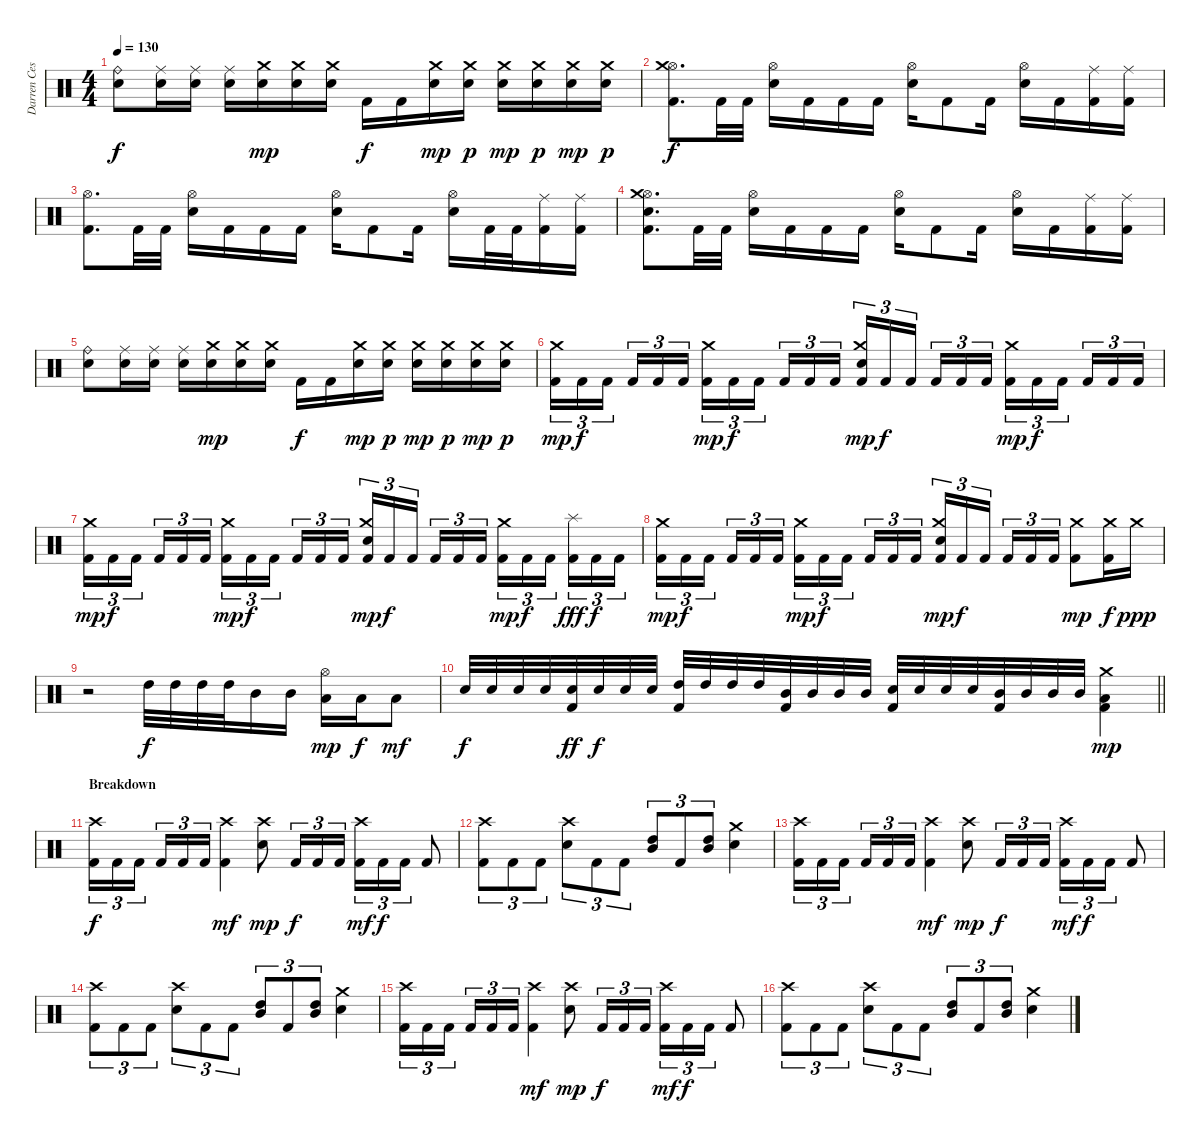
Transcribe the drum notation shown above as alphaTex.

\track ("Darren Cesca" "Darren Ces") {instrument percussion}
\staff {score}
\articulation defaults
\ts (4 4)
\tempo 130
\clef neutral
\ks c
("Ride (bell)" "Electric Snare (hit)").8{dy f} ("Ride (middle)" "Electric Snare (hit)").16 ("Ride (middle)" "Electric Snare (hit)").16 ("Ride (middle)" "Electric Snare (hit)").16 ("Crash medium (hit)" "Electric Snare (hit)").16{dy mp} ("Crash medium (hit)" "Electric Snare (hit)").16 ("Crash medium (hit)" "Electric Snare (hit)").16 "Kick (hit) 2".16{dy f} "Kick (hit) 2".16 ("Crash medium (hit)" "Electric Snare (hit)").16{dy mp} ("Crash medium (hit)" "Electric Snare (hit)").16{dy p} ("Crash medium (hit)" "Electric Snare (hit)").16{dy mp} ("Crash medium (hit)" "Electric Snare (hit)").16{dy p} ("Crash medium (hit)" "Electric Snare (hit)").16{dy mp} ("Crash medium (hit)" "Electric Snare (hit)").16{dy p} |
("Hi-Hat (open)" "Crash medium (hit)" "Kick (hit) 2").8{d dy f} "Kick (hit) 2".32 "Kick (hit) 2".32 ("Hi-Hat (open)" "Electric Snare (hit)").16 "Kick (hit) 2".16 "Kick (hit) 2".16 "Kick (hit) 2".16 ("Hi-Hat (open)" "Electric Snare (hit)").16 "Kick (hit) 2".8 "Kick (hit) 2".16 ("Hi-Hat (open)" "Electric Snare (hit)").16 "Kick (hit) 2".16 ("Ride (middle)" "Kick (hit) 2").16 ("Ride (middle)" "Kick (hit) 2").16 |
("Hi-Hat (open)" "Kick (hit) 2").8{d} "Kick (hit) 2".32 "Kick (hit) 2".32 ("Hi-Hat (open)" "Electric Snare (hit)").16 "Kick (hit) 2".16 "Kick (hit) 2".16 "Kick (hit) 2".16 ("Hi-Hat (open)" "Electric Snare (hit)").16 "Kick (hit) 2".8 "Kick (hit) 2".16 ("Hi-Hat (open)" "Electric Snare (hit)").16 "Kick (hit) 2".32 "Kick (hit) 2".32 ("Ride (middle)" "Kick (hit) 2").16 ("Ride (middle)" "Kick (hit) 2").16 |
("Hi-Hat (open)" "Crash medium (hit)" "Electric Snare (hit)" "Kick (hit) 2").8{d} "Kick (hit) 2".32 "Kick (hit) 2".32 ("Hi-Hat (open)" "Electric Snare (hit)").16 "Kick (hit) 2".16 "Kick (hit) 2".16 "Kick (hit) 2".16 ("Hi-Hat (open)" "Electric Snare (hit)").16 "Kick (hit) 2".8 "Kick (hit) 2".16 ("Hi-Hat (open)" "Electric Snare (hit)").16 "Kick (hit) 2".16 ("Ride (middle)" "Kick (hit) 2").16 ("Ride (middle)" "Kick (hit) 2").16 |
("Ride (bell)" "Electric Snare (hit)").8 ("Ride (middle)" "Electric Snare (hit)").16 ("Ride (middle)" "Electric Snare (hit)").16 ("Ride (middle)" "Electric Snare (hit)").16 ("Crash medium (hit)" "Electric Snare (hit)").16{dy mp} ("Crash medium (hit)" "Electric Snare (hit)").16 ("Crash medium (hit)" "Electric Snare (hit)").16 "Kick (hit) 2".16{dy f} "Kick (hit) 2".16 ("Crash medium (hit)" "Electric Snare (hit)").16{dy mp} ("Crash medium (hit)" "Electric Snare (hit)").16{dy p} ("Crash medium (hit)" "Electric Snare (hit)").16{dy mp} ("Crash medium (hit)" "Electric Snare (hit)").16{dy p} ("Crash medium (hit)" "Electric Snare (hit)").16{dy mp} ("Crash medium (hit)" "Electric Snare (hit)").16{dy p} |
("Crash medium (hit)" "Kick (hit) 2").16{tu (3 2) dy mp} "Kick (hit) 2".16{tu (3 2) dy f} "Kick (hit) 2".16{tu (3 2) beam splitsecondary} "Kick (hit) 2".16{tu (3 2)} "Kick (hit) 2".16{tu (3 2)} "Kick (hit) 2".16{tu (3 2)} ("Crash medium (hit)" "Kick (hit) 2").16{tu (3 2) dy mp} "Kick (hit) 2".16{tu (3 2) dy f} "Kick (hit) 2".16{tu (3 2) beam splitsecondary} "Kick (hit) 2".16{tu (3 2)} "Kick (hit) 2".16{tu (3 2)} "Kick (hit) 2".16{tu (3 2)} ("Crash medium (hit)" "Electric Snare (hit)" "Kick (hit) 2").16{tu (3 2) dy mp} "Kick (hit) 2".16{tu (3 2) dy f} "Kick (hit) 2".16{tu (3 2) beam splitsecondary} "Kick (hit) 2".16{tu (3 2)} "Kick (hit) 2".16{tu (3 2)} "Kick (hit) 2".16{tu (3 2)} ("Crash medium (hit)" "Kick (hit) 2").16{tu (3 2) dy mp} "Kick (hit) 2".16{tu (3 2) dy f} "Kick (hit) 2".16{tu (3 2) beam splitsecondary} "Kick (hit) 2".16{tu (3 2)} "Kick (hit) 2".16{tu (3 2)} "Kick (hit) 2".16{tu (3 2)} |
("Crash medium (hit)" "Kick (hit) 2").16{tu (3 2) dy mp} "Kick (hit) 2".16{tu (3 2) dy f} "Kick (hit) 2".16{tu (3 2) beam splitsecondary} "Kick (hit) 2".16{tu (3 2)} "Kick (hit) 2".16{tu (3 2)} "Kick (hit) 2".16{tu (3 2)} ("Crash medium (hit)" "Kick (hit) 2").16{tu (3 2) dy mp} "Kick (hit) 2".16{tu (3 2) dy f} "Kick (hit) 2".16{tu (3 2) beam splitsecondary} "Kick (hit) 2".16{tu (3 2)} "Kick (hit) 2".16{tu (3 2)} "Kick (hit) 2".16{tu (3 2)} ("Crash medium (hit)" "Electric Snare (hit)" "Kick (hit) 2").16{tu (3 2) dy mp} "Kick (hit) 2".16{tu (3 2) dy f} "Kick (hit) 2".16{tu (3 2) beam splitsecondary} "Kick (hit) 2".16{tu (3 2)} "Kick (hit) 2".16{tu (3 2)} "Kick (hit) 2".16{tu (3 2)} ("Crash medium (hit)" "Kick (hit) 2").16{tu (3 2) dy mp} "Kick (hit) 2".16{tu (3 2) dy f} "Kick (hit) 2".16{tu (3 2) beam splitsecondary} ("Splash (hit)" "Kick (hit) 2").16{tu (3 2) dy fff} "Kick (hit) 2".16{tu (3 2) dy f} "Kick (hit) 2".16{tu (3 2)} |
("Crash medium (hit)" "Kick (hit) 2").16{tu (3 2) dy mp} "Kick (hit) 2".16{tu (3 2) dy f} "Kick (hit) 2".16{tu (3 2) beam splitsecondary} "Kick (hit) 2".16{tu (3 2)} "Kick (hit) 2".16{tu (3 2)} "Kick (hit) 2".16{tu (3 2)} ("Crash medium (hit)" "Kick (hit) 2").16{tu (3 2) dy mp} "Kick (hit) 2".16{tu (3 2) dy f} "Kick (hit) 2".16{tu (3 2) beam splitsecondary} "Kick (hit) 2".16{tu (3 2)} "Kick (hit) 2".16{tu (3 2)} "Kick (hit) 2".16{tu (3 2)} ("Crash medium (hit)" "Electric Snare (hit)" "Kick (hit) 2").16{tu (3 2) dy mp} "Kick (hit) 2".16{tu (3 2) dy f} "Kick (hit) 2".16{tu (3 2) beam splitsecondary} "Kick (hit) 2".16{tu (3 2)} "Kick (hit) 2".16{tu (3 2)} "Kick (hit) 2".16{tu (3 2)} ("Crash medium (hit)" "Kick (hit) 2").8{dy mp} ("Crash medium (hit)" "Kick (hit) 2").16{dy f} "Crash medium (hit)".16{dy ppp} |
r.2 "High Tom (hit)".32{dy f} "High Tom (hit)".32 "High Tom (hit)".32 "High Tom (hit)".32 "Mid Tom (hit)".16 "Mid Tom (hit)".16 ("Hi-Hat (open)" "Low Tom (hit)").16{dy mp} "Low Tom (hit)".16{dy f} "Low Tom (hit)".8{dy mf} |
\barLineRight lightlight "Electric Snare (hit)".32{dy f} "Electric Snare (hit)".32 "Electric Snare (hit)".32 "Electric Snare (hit)".32
("Electric Snare (hit)" "Kick (hit) 2").32{dy ff} "Electric Snare (hit)".32{dy f} "Electric Snare (hit)".32 "Electric Snare (hit)".32 ("High Tom (hit)" "Kick (hit) 2").32 "High Tom (hit)".32 "High Tom (hit)".32 "High Tom (hit)".32 ("Mid Tom (hit)" "Kick (hit) 2").32 "Mid Tom (hit)".32 "Mid Tom (hit)".32 "Mid Tom (hit)".32 ("Electric Snare (hit)" "Kick (hit) 2").32 "Electric Snare (hit)".32 "Electric Snare (hit)".32 "Electric Snare (hit)".32 ("Mid Tom (hit)" "Kick (hit) 2").32 "Mid Tom (hit)".32 "Mid Tom (hit)".32 "Mid Tom (hit)".32 ("Crash medium (hit)" "Low Tom (hit)" "Kick (hit) 2").4{dy mp} |
\section ("" "Breakdown")
("Crash high (hit)" "Kick (hit) 2").16{tu (3 2) dy f} "Kick (hit) 2".16{tu (3 2)} "Kick (hit) 2".16{tu (3 2) beam splitsecondary} "Kick (hit) 2".16{tu (3 2)} "Kick (hit) 2".16{tu (3 2)} "Kick (hit) 2".16{tu (3 2)} ("Crash high (hit)" "Kick (hit) 2").4{dy mf} ("Crash high (hit)" "Electric Snare (hit)").8{dy mp} "Kick (hit) 2".16{tu (3 2) dy f} "Kick (hit) 2".16{tu (3 2)} "Kick (hit) 2".16{tu (3 2)} ("Crash high (hit)" "Kick (hit) 2").16{tu (3 2) dy mf} "Kick (hit) 2".16{tu (3 2) dy f} "Kick (hit) 2".16{tu (3 2)} "Kick (hit) 2".8 |
("Crash high (hit)" "Kick (hit) 2").8{tu (3 2)} "Kick (hit) 2".8{tu (3 2)} "Kick (hit) 2".8{tu (3 2)} ("Crash high (hit)" "Electric Snare (hit)").8{tu (3 2)} "Kick (hit) 2".8{tu (3 2)} "Kick (hit) 2".8{tu (3 2)} ("High Tom (hit)" "Mid Tom (hit)").8{tu (3 2)} "Kick (hit) 2".8{tu (3 2)} ("High Tom (hit)" "Mid Tom (hit)").8{tu (3 2)} ("Crash medium (hit)" "Electric Snare (hit)").4 |
("Crash high (hit)" "Kick (hit) 2").16{tu (3 2)} "Kick (hit) 2".16{tu (3 2)} "Kick (hit) 2".16{tu (3 2) beam splitsecondary} "Kick (hit) 2".16{tu (3 2)} "Kick (hit) 2".16{tu (3 2)} "Kick (hit) 2".16{tu (3 2)} ("Crash high (hit)" "Kick (hit) 2").4{dy mf} ("Crash high (hit)" "Electric Snare (hit)").8{dy mp} "Kick (hit) 2".16{tu (3 2) dy f} "Kick (hit) 2".16{tu (3 2)} "Kick (hit) 2".16{tu (3 2)} ("Crash high (hit)" "Kick (hit) 2").16{tu (3 2) dy mf} "Kick (hit) 2".16{tu (3 2) dy f} "Kick (hit) 2".16{tu (3 2)} "Kick (hit) 2".8 |
("Crash high (hit)" "Kick (hit) 2").8{tu (3 2)} "Kick (hit) 2".8{tu (3 2)} "Kick (hit) 2".8{tu (3 2)} ("Crash high (hit)" "Electric Snare (hit)").8{tu (3 2)} "Kick (hit) 2".8{tu (3 2)} "Kick (hit) 2".8{tu (3 2)} ("High Tom (hit)" "Mid Tom (hit)").8{tu (3 2)} "Kick (hit) 2".8{tu (3 2)} ("High Tom (hit)" "Mid Tom (hit)").8{tu (3 2)} ("Crash medium (hit)" "Electric Snare (hit)").4 |
("Crash high (hit)" "Kick (hit) 2").16{tu (3 2)} "Kick (hit) 2".16{tu (3 2)} "Kick (hit) 2".16{tu (3 2) beam splitsecondary} "Kick (hit) 2".16{tu (3 2)} "Kick (hit) 2".16{tu (3 2)} "Kick (hit) 2".16{tu (3 2)} ("Crash high (hit)" "Kick (hit) 2").4{dy mf} ("Crash high (hit)" "Electric Snare (hit)").8{dy mp} "Kick (hit) 2".16{tu (3 2) dy f} "Kick (hit) 2".16{tu (3 2)} "Kick (hit) 2".16{tu (3 2)} ("Crash high (hit)" "Kick (hit) 2").16{tu (3 2) dy mf} "Kick (hit) 2".16{tu (3 2) dy f} "Kick (hit) 2".16{tu (3 2)} "Kick (hit) 2".8 |
("Crash high (hit)" "Kick (hit) 2").8{tu (3 2)} "Kick (hit) 2".8{tu (3 2)} "Kick (hit) 2".8{tu (3 2)} ("Crash high (hit)" "Electric Snare (hit)").8{tu (3 2)} "Kick (hit) 2".8{tu (3 2)} "Kick (hit) 2".8{tu (3 2)} ("High Tom (hit)" "Mid Tom (hit)").8{tu (3 2)} "Kick (hit) 2".8{tu (3 2)} ("High Tom (hit)" "Mid Tom (hit)").8{tu (3 2)} ("Crash medium (hit)" "Electric Snare (hit)").4
